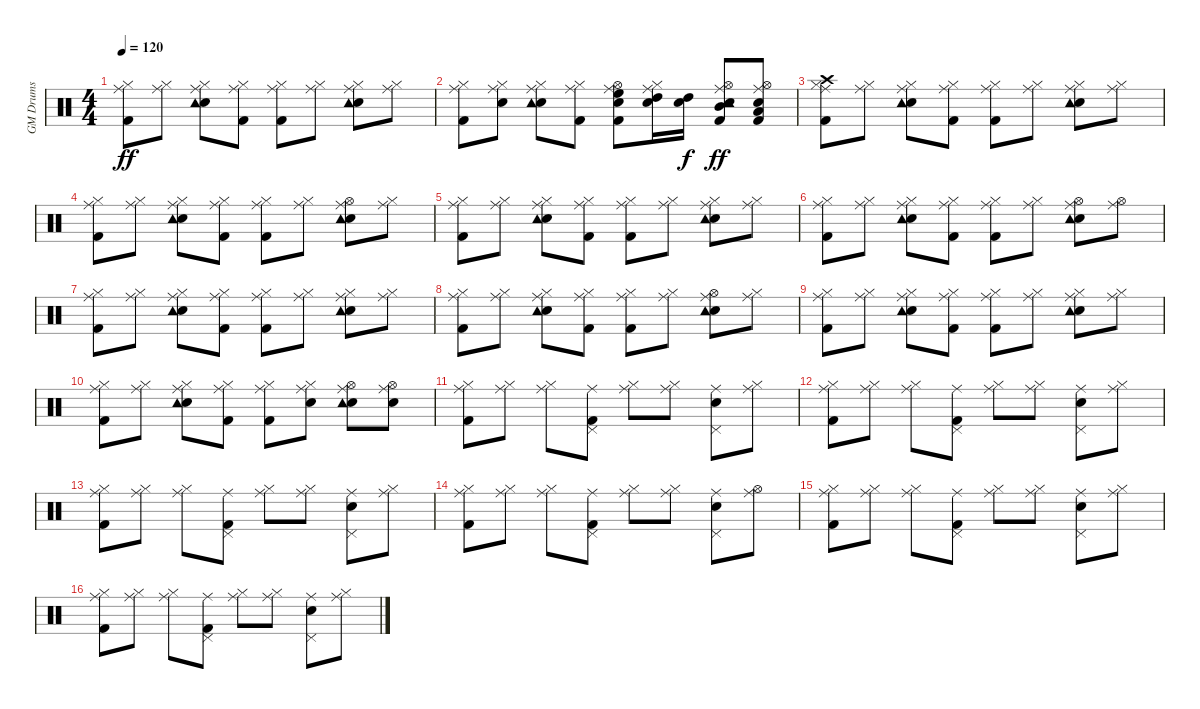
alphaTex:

\track ("GM Drums" "GM Drums") {instrument percussion}
\staff {score}
\articulation defaults
\ts (4 4)
\tempo 120
\clef neutral
\ks c
("Kick (hit) 2" "Hi-Hat (closed)" "Ride (middle)").8{dy ff} ("Hi-Hat (closed)" "Ride (middle)").8 ("Electric Snare (hit)" "Hi-Hat (closed)" "Ride (middle)" "Tambourine (hit)").8 ("Kick (hit) 2" "Hi-Hat (closed)" "Ride (middle)").8 ("Kick (hit) 2" "Hi-Hat (closed)" "Ride (middle)").8 ("Hi-Hat (closed)" "Ride (middle)").8 ("Electric Snare (hit)" "Hi-Hat (closed)" "Ride (middle)" "Tambourine (hit)").8 ("Hi-Hat (closed)" "Ride (middle)").8 |
("Kick (hit) 2" "Hi-Hat (closed)" "Ride (middle)").8 ("Electric Snare (hit)" "Hi-Hat (closed)" "Ride (middle)").8 ("Electric Snare (hit)" "Hi-Hat (closed)" "Ride (middle)" "Tambourine (hit)").8 ("Kick (hit) 2" "Hi-Hat (closed)" "Ride (middle)").8 ("Kick (hit) 2" "Electric Snare (hit)" "Hi-Hat (open)" "High Floor Tom (hit)" "Ride (middle)").8 ("Electric Snare (hit)" "Hi-Hat (closed)" "High Tom (hit)" "Ride (middle)").16 ("Electric Snare (hit)" "High Tom (hit)").16{dy f} ("Kick (hit) 2" "Electric Snare (hit)" "Hi-Hat (open)" "Mid Tom (hit)" "Ride (middle)" "Tambourine (hit)").8{dy ff} ("Kick (hit) 2" "Electric Snare (hit)" "Low Tom (hit)" "Hi-Hat (open)" "Ride (middle)").8 |
("Kick (hit) 2" "Hi-Hat (closed)" "Crash high (hit)" "Ride (middle)").8 ("Hi-Hat (closed)" "Ride (middle)").8 ("Electric Snare (hit)" "Hi-Hat (closed)" "Ride (middle)" "Tambourine (hit)").8 ("Kick (hit) 2" "Hi-Hat (closed)" "Ride (middle)").8 ("Kick (hit) 2" "Hi-Hat (closed)" "Ride (middle)").8 ("Hi-Hat (closed)" "Ride (middle)").8 ("Electric Snare (hit)" "Hi-Hat (closed)" "Ride (middle)" "Tambourine (hit)").8 ("Hi-Hat (closed)" "Ride (middle)").8 |
("Kick (hit) 2" "Hi-Hat (closed)" "Ride (middle)").8 ("Hi-Hat (closed)" "Ride (middle)").8 ("Electric Snare (hit)" "Hi-Hat (closed)" "Ride (middle)" "Tambourine (hit)").8 ("Kick (hit) 2" "Hi-Hat (closed)" "Ride (middle)").8 ("Kick (hit) 2" "Hi-Hat (closed)" "Ride (middle)").8 ("Hi-Hat (closed)" "Ride (middle)").8 ("Electric Snare (hit)" "Hi-Hat (open)" "Ride (middle)" "Tambourine (hit)").8 ("Hi-Hat (closed)" "Ride (middle)").8 |
("Kick (hit) 2" "Hi-Hat (closed)" "Ride (middle)").8 ("Hi-Hat (closed)" "Ride (middle)").8 ("Electric Snare (hit)" "Hi-Hat (closed)" "Ride (middle)" "Tambourine (hit)").8 ("Kick (hit) 2" "Hi-Hat (closed)" "Ride (middle)").8 ("Kick (hit) 2" "Hi-Hat (closed)" "Ride (middle)").8 ("Hi-Hat (closed)" "Ride (middle)").8 ("Electric Snare (hit)" "Hi-Hat (closed)" "Ride (middle)" "Tambourine (hit)").8 ("Hi-Hat (closed)" "Ride (middle)").8 |
("Kick (hit) 2" "Hi-Hat (closed)" "Ride (middle)").8 ("Hi-Hat (closed)" "Ride (middle)").8 ("Electric Snare (hit)" "Hi-Hat (closed)" "Ride (middle)" "Tambourine (hit)").8 ("Kick (hit) 2" "Hi-Hat (closed)" "Ride (middle)").8 ("Kick (hit) 2" "Hi-Hat (closed)" "Ride (middle)").8 ("Hi-Hat (closed)" "Ride (middle)").8 ("Electric Snare (hit)" "Hi-Hat (open)" "Ride (middle)" "Tambourine (hit)").8 ("Hi-Hat (open)" "Ride (middle)").8 |
("Kick (hit) 2" "Hi-Hat (closed)" "Ride (middle)").8 ("Hi-Hat (closed)" "Ride (middle)").8 ("Electric Snare (hit)" "Hi-Hat (closed)" "Ride (middle)" "Tambourine (hit)").8 ("Kick (hit) 2" "Hi-Hat (closed)" "Ride (middle)").8 ("Kick (hit) 2" "Hi-Hat (closed)" "Ride (middle)").8 ("Hi-Hat (closed)" "Ride (middle)").8 ("Electric Snare (hit)" "Hi-Hat (closed)" "Ride (middle)" "Tambourine (hit)").8 ("Hi-Hat (closed)" "Ride (middle)").8 |
("Kick (hit) 2" "Hi-Hat (closed)" "Ride (middle)").8 ("Hi-Hat (closed)" "Ride (middle)").8 ("Electric Snare (hit)" "Hi-Hat (closed)" "Ride (middle)" "Tambourine (hit)").8 ("Kick (hit) 2" "Hi-Hat (closed)" "Ride (middle)").8 ("Kick (hit) 2" "Hi-Hat (closed)" "Ride (middle)").8 ("Hi-Hat (closed)" "Ride (middle)").8 ("Electric Snare (hit)" "Hi-Hat (open)" "Ride (middle)" "Tambourine (hit)").8 ("Hi-Hat (closed)" "Ride (middle)").8 |
("Kick (hit) 2" "Hi-Hat (closed)" "Ride (middle)").8 ("Hi-Hat (closed)" "Ride (middle)").8 ("Electric Snare (hit)" "Hi-Hat (closed)" "Ride (middle)" "Tambourine (hit)").8 ("Kick (hit) 2" "Hi-Hat (closed)" "Ride (middle)").8 ("Kick (hit) 2" "Hi-Hat (closed)" "Ride (middle)").8 ("Hi-Hat (closed)" "Ride (middle)").8 ("Electric Snare (hit)" "Hi-Hat (closed)" "Ride (middle)" "Tambourine (hit)").8 ("Hi-Hat (closed)" "Ride (middle)").8 |
("Kick (hit) 2" "Hi-Hat (closed)" "Ride (middle)").8 ("Hi-Hat (closed)" "Ride (middle)").8 ("Electric Snare (hit)" "Hi-Hat (closed)" "Ride (middle)" "Tambourine (hit)").8 ("Kick (hit) 2" "Hi-Hat (closed)" "Ride (middle)").8 ("Kick (hit) 2" "Hi-Hat (closed)" "Ride (middle)").8 ("Electric Snare (hit)" "Hi-Hat (closed)" "Ride (middle)").8 ("Electric Snare (hit)" "Hi-Hat (open)" "Ride (middle)" "Tambourine (hit)").8 ("Electric Snare (hit)" "Hi-Hat (open)" "Ride (middle)").8 |
("Kick (hit) 2" "Hi-Hat (closed)" "Ride (middle)").8 ("Hi-Hat (closed)" "Ride (middle)").8 ("Hi-Hat (closed)" "Ride (middle)").8 ("Kick (hit) 2" "Pedal Hi-Hat (hit)" "Ride (middle)").8 ("Hi-Hat (closed)" "Ride (middle)").8 ("Hi-Hat (closed)" "Ride (middle)").8 ("Electric Snare (hit)" "Pedal Hi-Hat (hit)" "Ride (middle)").8 ("Hi-Hat (closed)" "Ride (middle)").8 |
("Kick (hit) 2" "Hi-Hat (closed)" "Ride (middle)").8 ("Hi-Hat (closed)" "Ride (middle)").8 ("Hi-Hat (closed)" "Ride (middle)").8 ("Kick (hit) 2" "Pedal Hi-Hat (hit)" "Ride (middle)").8 ("Hi-Hat (closed)" "Ride (middle)").8 ("Hi-Hat (closed)" "Ride (middle)").8 ("Electric Snare (hit)" "Pedal Hi-Hat (hit)" "Ride (middle)").8 ("Hi-Hat (closed)" "Ride (middle)").8 |
("Kick (hit) 2" "Hi-Hat (closed)" "Ride (middle)").8 ("Hi-Hat (closed)" "Ride (middle)").8 ("Hi-Hat (closed)" "Ride (middle)").8 ("Kick (hit) 2" "Pedal Hi-Hat (hit)" "Ride (middle)").8 ("Hi-Hat (closed)" "Ride (middle)").8 ("Hi-Hat (closed)" "Ride (middle)").8 ("Electric Snare (hit)" "Pedal Hi-Hat (hit)" "Ride (middle)").8 ("Hi-Hat (closed)" "Ride (middle)").8 |
("Kick (hit) 2" "Hi-Hat (closed)" "Ride (middle)").8 ("Hi-Hat (closed)" "Ride (middle)").8 ("Hi-Hat (closed)" "Ride (middle)").8 ("Kick (hit) 2" "Pedal Hi-Hat (hit)" "Ride (middle)").8 ("Hi-Hat (closed)" "Ride (middle)").8 ("Hi-Hat (closed)" "Ride (middle)").8 ("Electric Snare (hit)" "Pedal Hi-Hat (hit)" "Ride (middle)").8 ("Hi-Hat (open)" "Ride (middle)").8 |
("Kick (hit) 2" "Hi-Hat (closed)" "Ride (middle)").8 ("Hi-Hat (closed)" "Ride (middle)").8 ("Hi-Hat (closed)" "Ride (middle)").8 ("Kick (hit) 2" "Pedal Hi-Hat (hit)" "Ride (middle)").8 ("Hi-Hat (closed)" "Ride (middle)").8 ("Hi-Hat (closed)" "Ride (middle)").8 ("Electric Snare (hit)" "Pedal Hi-Hat (hit)" "Ride (middle)").8 ("Hi-Hat (closed)" "Ride (middle)").8 |
("Kick (hit) 2" "Hi-Hat (closed)" "Ride (middle)").8 ("Hi-Hat (closed)" "Ride (middle)").8 ("Hi-Hat (closed)" "Ride (middle)").8 ("Kick (hit) 2" "Pedal Hi-Hat (hit)" "Ride (middle)").8 ("Hi-Hat (closed)" "Ride (middle)").8 ("Hi-Hat (closed)" "Ride (middle)").8 ("Electric Snare (hit)" "Pedal Hi-Hat (hit)" "Ride (middle)").8 ("Hi-Hat (closed)" "Ride (middle)").8
